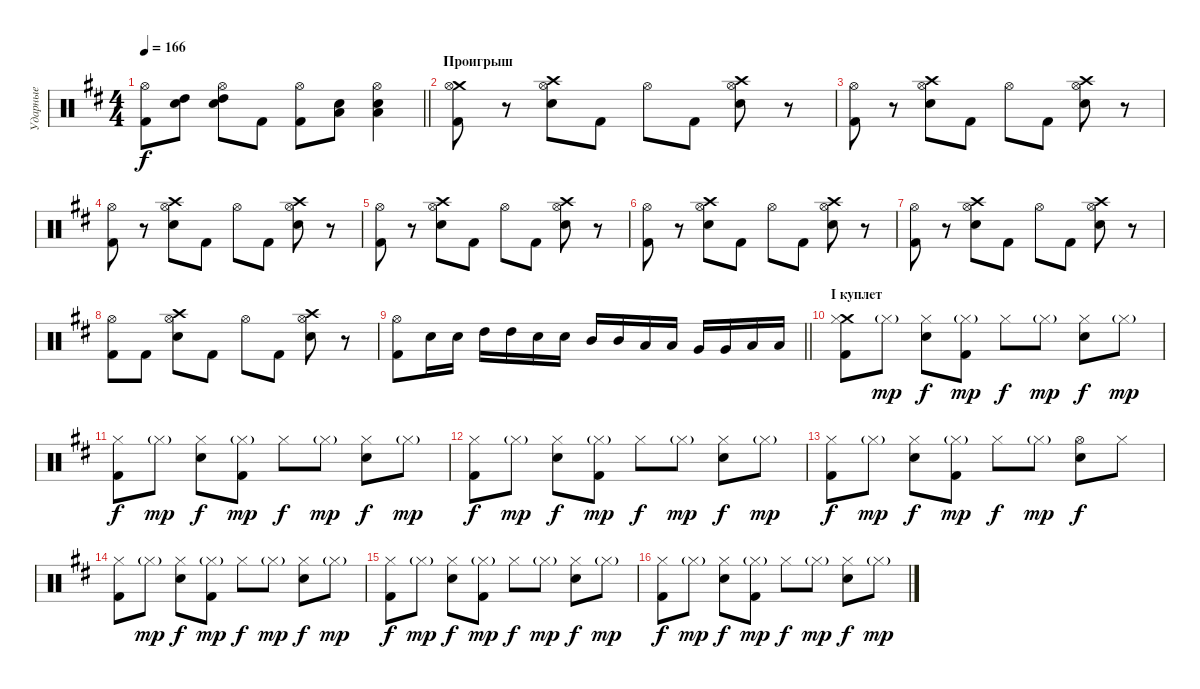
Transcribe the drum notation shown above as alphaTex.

\track ("Ударные" "Ударные") {instrument percussion}
\staff {score}
\articulation defaults
\ts (4 4)
\tempo 166
\clef neutral
\barLineRight lightlight
\ks bminor
("Kick (hit) 2" "Hi-Hat (open)").8{dy f} ("High Tom (hit)" "Electric Snare (hit)").8 ("High Tom (hit)" "Electric Snare (hit)" "Hi-Hat (open)").8 "Kick (hit) 2".8 ("Kick (hit) 2" "Hi-Hat (open)").8 ("Low Tom (hit)" "Electric Snare (hit)").8 ("Low Tom (hit)" "Electric Snare (hit)" "Hi-Hat (open)").4 |
\section ("" "Проигрыш")
("Crash medium (hit)" "Kick (hit) 2" "Hi-Hat (open)").8 r.8 ("Crash high (hit)" "Electric Snare (hit)" "Hi-Hat (open)").8 "Kick (hit) 2".8 "Hi-Hat (open)".8 "Kick (hit) 2".8 ("Crash high (hit)" "Electric Snare (hit)" "Hi-Hat (open)").8 r.8 |
("Kick (hit) 2" "Hi-Hat (open)").8 r.8 ("Crash high (hit)" "Electric Snare (hit)" "Hi-Hat (open)").8 "Kick (hit) 2".8 "Hi-Hat (open)".8 "Kick (hit) 2".8 ("Crash high (hit)" "Electric Snare (hit)" "Hi-Hat (open)").8 r.8 |
("Kick (hit) 2" "Hi-Hat (open)").8 r.8 ("Crash high (hit)" "Electric Snare (hit)" "Hi-Hat (open)").8 "Kick (hit) 2".8 "Hi-Hat (open)".8 "Kick (hit) 2".8 ("Crash high (hit)" "Electric Snare (hit)" "Hi-Hat (open)").8 r.8 |
("Kick (hit) 2" "Hi-Hat (open)").8 r.8 ("Crash high (hit)" "Electric Snare (hit)" "Hi-Hat (open)").8 "Kick (hit) 2".8 "Hi-Hat (open)".8 "Kick (hit) 2".8 ("Crash high (hit)" "Electric Snare (hit)" "Hi-Hat (open)").8 r.8 |
("Kick (hit) 2" "Hi-Hat (open)").8 r.8 ("Crash high (hit)" "Electric Snare (hit)" "Hi-Hat (open)").8 "Kick (hit) 2".8 "Hi-Hat (open)".8 "Kick (hit) 2".8 ("Crash high (hit)" "Electric Snare (hit)" "Hi-Hat (open)").8 r.8 |
("Kick (hit) 2" "Hi-Hat (open)").8 r.8 ("Crash high (hit)" "Electric Snare (hit)" "Hi-Hat (open)").8 "Kick (hit) 2".8 "Hi-Hat (open)".8 "Kick (hit) 2".8 ("Crash high (hit)" "Electric Snare (hit)" "Hi-Hat (open)").8 r.8 |
("Kick (hit) 2" "Hi-Hat (open)").8 "Kick (hit) 2".8 ("Crash high (hit)" "Electric Snare (hit)" "Hi-Hat (open)").8 "Kick (hit) 2".8 "Hi-Hat (open)".8 "Kick (hit) 2".8 ("Crash high (hit)" "Electric Snare (hit)" "Hi-Hat (open)").8 r.8 |
\barLineRight lightlight
("Kick (hit) 2" "Hi-Hat (open)").8 "Electric Snare (hit)".16 "Electric Snare (hit)".16 "High Tom (hit)".16 "High Tom (hit)".16 "Electric Snare (hit)".16 "Electric Snare (hit)".16 "Mid Tom (hit)".16 "Mid Tom (hit)".16 "Low Tom (hit)".16 "Low Tom (hit)".16 "Very Low Tom (hit)".16 "Very Low Tom (hit)".16 "Low Floor Tom (hit)".16 "Low Floor Tom (hit)".16 |
\section ("" "I куплет")
("Crash medium (hit)" "Kick (hit) 2" "Hi-Hat (closed)").8 "Hi-Hat (closed)"{g}.8{dy mp} ("Electric Snare (hit)" "Hi-Hat (closed)").8{dy f} ("Kick (hit) 2" "Hi-Hat (closed)"{g}).8{dy mp} "Hi-Hat (closed)".8{dy f} "Hi-Hat (closed)"{g}.8{dy mp} ("Electric Snare (hit)" "Hi-Hat (closed)").8{dy f} "Hi-Hat (closed)"{g}.8{dy mp} |
("Kick (hit) 2" "Hi-Hat (closed)").8{dy f} "Hi-Hat (closed)"{g}.8{dy mp} ("Electric Snare (hit)" "Hi-Hat (closed)").8{dy f} ("Kick (hit) 2" "Hi-Hat (closed)"{g}).8{dy mp} "Hi-Hat (closed)".8{dy f} "Hi-Hat (closed)"{g}.8{dy mp} ("Electric Snare (hit)" "Hi-Hat (closed)").8{dy f} "Hi-Hat (closed)"{g}.8{dy mp} |
("Kick (hit) 2" "Hi-Hat (closed)").8{dy f} "Hi-Hat (closed)"{g}.8{dy mp} ("Electric Snare (hit)" "Hi-Hat (closed)").8{dy f} ("Kick (hit) 2" "Hi-Hat (closed)"{g}).8{dy mp} "Hi-Hat (closed)".8{dy f} "Hi-Hat (closed)"{g}.8{dy mp} ("Electric Snare (hit)" "Hi-Hat (closed)").8{dy f} "Hi-Hat (closed)"{g}.8{dy mp} |
("Kick (hit) 2" "Hi-Hat (closed)").8{dy f} "Hi-Hat (closed)"{g}.8{dy mp} ("Electric Snare (hit)" "Hi-Hat (closed)").8{dy f} ("Kick (hit) 2" "Hi-Hat (closed)"{g}).8{dy mp} "Hi-Hat (closed)".8{dy f} "Hi-Hat (closed)"{g}.8{dy mp} ("Electric Snare (hit)" "Hi-Hat (open)").8{dy f} "Hi-Hat (closed)".8 |
("Kick (hit) 2" "Hi-Hat (closed)").8 "Hi-Hat (closed)"{g}.8{dy mp} ("Electric Snare (hit)" "Hi-Hat (closed)").8{dy f} ("Kick (hit) 2" "Hi-Hat (closed)"{g}).8{dy mp} "Hi-Hat (closed)".8{dy f} "Hi-Hat (closed)"{g}.8{dy mp} ("Electric Snare (hit)" "Hi-Hat (closed)").8{dy f} "Hi-Hat (closed)"{g}.8{dy mp} |
("Kick (hit) 2" "Hi-Hat (closed)").8{dy f} "Hi-Hat (closed)"{g}.8{dy mp} ("Electric Snare (hit)" "Hi-Hat (closed)").8{dy f} ("Kick (hit) 2" "Hi-Hat (closed)"{g}).8{dy mp} "Hi-Hat (closed)".8{dy f} "Hi-Hat (closed)"{g}.8{dy mp} ("Electric Snare (hit)" "Hi-Hat (closed)").8{dy f} "Hi-Hat (closed)"{g}.8{dy mp} |
("Kick (hit) 2" "Hi-Hat (closed)").8{dy f} "Hi-Hat (closed)"{g}.8{dy mp} ("Electric Snare (hit)" "Hi-Hat (closed)").8{dy f} ("Kick (hit) 2" "Hi-Hat (closed)"{g}).8{dy mp} "Hi-Hat (closed)".8{dy f} "Hi-Hat (closed)"{g}.8{dy mp} ("Electric Snare (hit)" "Hi-Hat (closed)").8{dy f} "Hi-Hat (closed)"{g}.8{dy mp}
